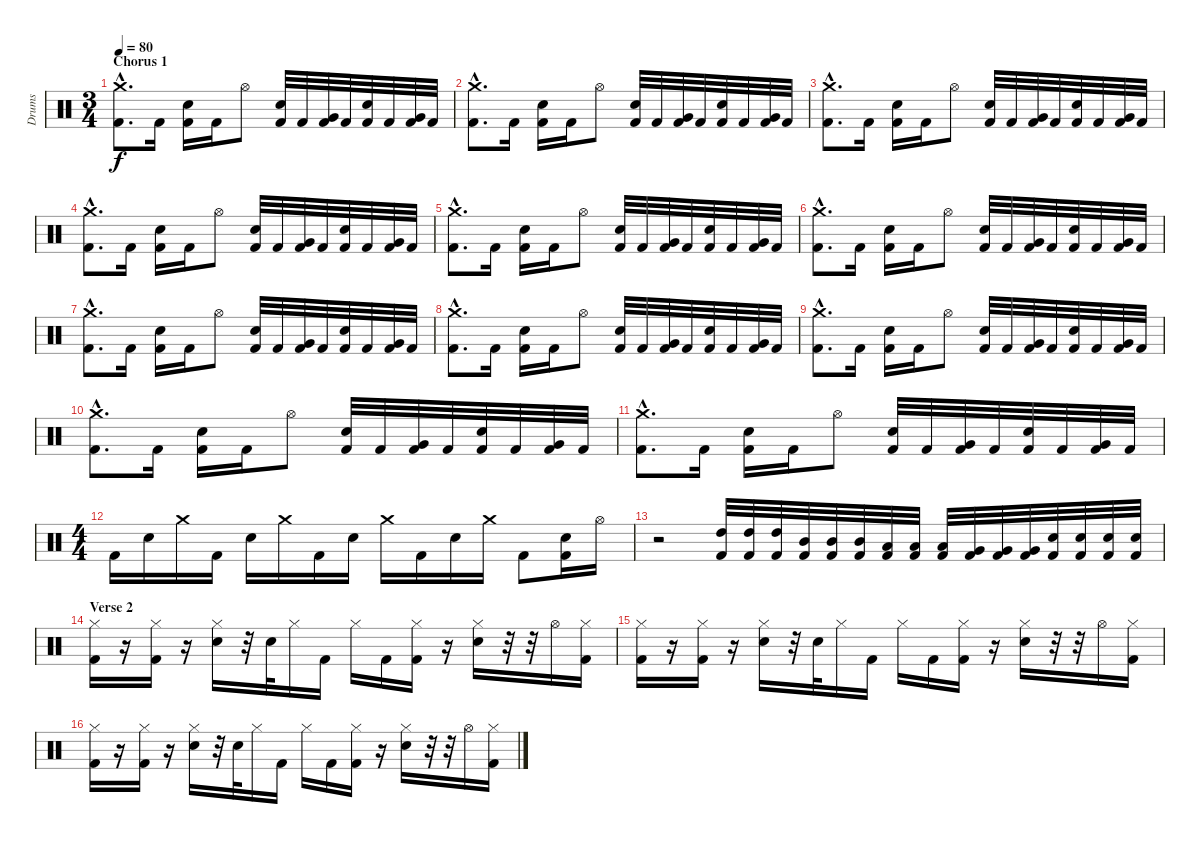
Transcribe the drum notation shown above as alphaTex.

\track ("Drums" "Drums") {instrument percussion}
\staff {score}
\articulation defaults
\ts (3 4)
\section ("" "Chorus 1")
\tempo 80
\clef neutral
\ks c
("Crash medium (hit)"{hac} "Kick (hit) 2"{hac}).8{d dy f} "Kick (hit) 2".16 ("Snare (hit) 2" "Kick (hit) 2").16 "Kick (hit) 2".16 "Hi-Hat (open)".8 ("Snare (hit) 2" "Kick (hit) 2").32 "Kick (hit) 2".32 ("Very Low Tom (hit)" "Kick (hit) 2").32 "Kick (hit) 2".32 ("Snare (hit) 2" "Kick (hit) 2").32 "Kick (hit) 2".32 ("Very Low Tom (hit)" "Kick (hit) 2").32 "Kick (hit) 2".32 |
("Crash medium (hit)"{hac} "Kick (hit) 2"{hac}).8{d} "Kick (hit) 2".16 ("Snare (hit) 2" "Kick (hit) 2").16 "Kick (hit) 2".16 "Hi-Hat (open)".8 ("Snare (hit) 2" "Kick (hit) 2").32 "Kick (hit) 2".32 ("Very Low Tom (hit)" "Kick (hit) 2").32 "Kick (hit) 2".32 ("Snare (hit) 2" "Kick (hit) 2").32 "Kick (hit) 2".32 ("Very Low Tom (hit)" "Kick (hit) 2").32 "Kick (hit) 2".32 |
("Crash medium (hit)"{hac} "Kick (hit) 2"{hac}).8{d} "Kick (hit) 2".16 ("Snare (hit) 2" "Kick (hit) 2").16 "Kick (hit) 2".16 "Hi-Hat (open)".8 ("Snare (hit) 2" "Kick (hit) 2").32 "Kick (hit) 2".32 ("Very Low Tom (hit)" "Kick (hit) 2").32 "Kick (hit) 2".32 ("Snare (hit) 2" "Kick (hit) 2").32 "Kick (hit) 2".32 ("Very Low Tom (hit)" "Kick (hit) 2").32 "Kick (hit) 2".32 |
("Crash medium (hit)"{hac} "Kick (hit) 2"{hac}).8{d} "Kick (hit) 2".16 ("Snare (hit) 2" "Kick (hit) 2").16 "Kick (hit) 2".16 "Hi-Hat (open)".8 ("Snare (hit) 2" "Kick (hit) 2").32 "Kick (hit) 2".32 ("Very Low Tom (hit)" "Kick (hit) 2").32 "Kick (hit) 2".32 ("Snare (hit) 2" "Kick (hit) 2").32 "Kick (hit) 2".32 ("Very Low Tom (hit)" "Kick (hit) 2").32 "Kick (hit) 2".32 |
("Crash medium (hit)"{hac} "Kick (hit) 2"{hac}).8{d} "Kick (hit) 2".16 ("Snare (hit) 2" "Kick (hit) 2").16 "Kick (hit) 2".16 "Hi-Hat (open)".8 ("Snare (hit) 2" "Kick (hit) 2").32 "Kick (hit) 2".32 ("Very Low Tom (hit)" "Kick (hit) 2").32 "Kick (hit) 2".32 ("Snare (hit) 2" "Kick (hit) 2").32 "Kick (hit) 2".32 ("Very Low Tom (hit)" "Kick (hit) 2").32 "Kick (hit) 2".32 |
("Crash medium (hit)"{hac} "Kick (hit) 2"{hac}).8{d} "Kick (hit) 2".16 ("Snare (hit) 2" "Kick (hit) 2").16 "Kick (hit) 2".16 "Hi-Hat (open)".8 ("Snare (hit) 2" "Kick (hit) 2").32 "Kick (hit) 2".32 ("Very Low Tom (hit)" "Kick (hit) 2").32 "Kick (hit) 2".32 ("Snare (hit) 2" "Kick (hit) 2").32 "Kick (hit) 2".32 ("Very Low Tom (hit)" "Kick (hit) 2").32 "Kick (hit) 2".32 |
("Crash medium (hit)"{hac} "Kick (hit) 2"{hac}).8{d} "Kick (hit) 2".16 ("Snare (hit) 2" "Kick (hit) 2").16 "Kick (hit) 2".16 "Hi-Hat (open)".8 ("Snare (hit) 2" "Kick (hit) 2").32 "Kick (hit) 2".32 ("Very Low Tom (hit)" "Kick (hit) 2").32 "Kick (hit) 2".32 ("Snare (hit) 2" "Kick (hit) 2").32 "Kick (hit) 2".32 ("Very Low Tom (hit)" "Kick (hit) 2").32 "Kick (hit) 2".32 |
("Crash medium (hit)"{hac} "Kick (hit) 2"{hac}).8{d} "Kick (hit) 2".16 ("Snare (hit) 2" "Kick (hit) 2").16 "Kick (hit) 2".16 "Hi-Hat (open)".8 ("Snare (hit) 2" "Kick (hit) 2").32 "Kick (hit) 2".32 ("Very Low Tom (hit)" "Kick (hit) 2").32 "Kick (hit) 2".32 ("Snare (hit) 2" "Kick (hit) 2").32 "Kick (hit) 2".32 ("Very Low Tom (hit)" "Kick (hit) 2").32 "Kick (hit) 2".32 |
("Crash medium (hit)"{hac} "Kick (hit) 2"{hac}).8{d} "Kick (hit) 2".16 ("Snare (hit) 2" "Kick (hit) 2").16 "Kick (hit) 2".16 "Hi-Hat (open)".8 ("Snare (hit) 2" "Kick (hit) 2").32 "Kick (hit) 2".32 ("Very Low Tom (hit)" "Kick (hit) 2").32 "Kick (hit) 2".32 ("Snare (hit) 2" "Kick (hit) 2").32 "Kick (hit) 2".32 ("Very Low Tom (hit)" "Kick (hit) 2").32 "Kick (hit) 2".32 |
("Crash medium (hit)"{hac} "Kick (hit) 2"{hac}).8{d} "Kick (hit) 2".16 ("Snare (hit) 2" "Kick (hit) 2").16 "Kick (hit) 2".16 "Hi-Hat (open)".8 ("Snare (hit) 2" "Kick (hit) 2").32 "Kick (hit) 2".32 ("Very Low Tom (hit)" "Kick (hit) 2").32 "Kick (hit) 2".32 ("Snare (hit) 2" "Kick (hit) 2").32 "Kick (hit) 2".32 ("Very Low Tom (hit)" "Kick (hit) 2").32 "Kick (hit) 2".32 |
("Crash medium (hit)"{hac} "Kick (hit) 2"{hac}).8{d} "Kick (hit) 2".16 ("Snare (hit) 2" "Kick (hit) 2").16 "Kick (hit) 2".16 "Hi-Hat (open)".8 ("Snare (hit) 2" "Kick (hit) 2").32 "Kick (hit) 2".32 ("Very Low Tom (hit)" "Kick (hit) 2").32 "Kick (hit) 2".32 ("Snare (hit) 2" "Kick (hit) 2").32 "Kick (hit) 2".32 ("Very Low Tom (hit)" "Kick (hit) 2").32 "Kick (hit) 2".32 |
\ts (4 4)
"Kick (hit) 2".16 "Snare (hit) 2".16 "Crash medium (hit)".16 "Kick (hit) 2".16 "Snare (hit) 2".16 "Crash medium (hit)".16 "Kick (hit) 2".16 "Snare (hit) 2".16 "Crash medium (hit)".16 "Kick (hit) 2".16 "Snare (hit) 2".16 "Crash medium (hit)".16 "Kick (hit) 2".8 ("Snare (hit) 2" "Kick (hit) 2").16 "Hi-Hat (open)".16 |
r.2 ("High Tom (hit)" "Kick (hit) 2").32 ("High Tom (hit)" "Kick (hit) 2").32 ("High Tom (hit)" "Kick (hit) 2").32 ("Mid Tom (hit)" "Kick (hit) 2").32 ("Mid Tom (hit)" "Kick (hit) 2").32 ("Mid Tom (hit)" "Kick (hit) 2").32 ("Low Tom (hit)" "Kick (hit) 2").32 ("Low Tom (hit)" "Kick (hit) 2").32 ("Low Tom (hit)" "Kick (hit) 2").32 ("Very Low Tom (hit)" "Kick (hit) 2").32 ("Very Low Tom (hit)" "Kick (hit) 2").32 ("Very Low Tom (hit)" "Kick (hit) 2").32 ("Snare (hit) 2" "Kick (hit) 2").32 ("Snare (hit) 2" "Kick (hit) 2").32 ("Snare (hit) 2" "Kick (hit) 2").32 ("Snare (hit) 2" "Kick (hit) 2").32 |
\section ("" "Verse 2")
("Hi-Hat (closed)" "Kick (hit) 2").16 r.16 ("Hi-Hat (closed)" "Kick (hit) 2").16 r.16 ("Hi-Hat (closed)" "Snare (hit) 2").16 r.32 "Snare (hit) 2".32 "Hi-Hat (closed)".16 "Kick (hit) 2".16 "Hi-Hat (closed)".16 "Kick (hit) 2".16 ("Hi-Hat (closed)" "Kick (hit) 2").16 r.16 ("Hi-Hat (closed)" "Snare (hit) 2").16 r.32 r.32 "Hi-Hat (open)".16 ("Hi-Hat (closed)" "Kick (hit) 2").16 |
("Hi-Hat (closed)" "Kick (hit) 2").16 r.16 ("Hi-Hat (closed)" "Kick (hit) 2").16 r.16 ("Hi-Hat (closed)" "Snare (hit) 2").16 r.32 "Snare (hit) 2".32 "Hi-Hat (closed)".16 "Kick (hit) 2".16 "Hi-Hat (closed)".16 "Kick (hit) 2".16 ("Hi-Hat (closed)" "Kick (hit) 2").16 r.16 ("Hi-Hat (closed)" "Snare (hit) 2").16 r.32 r.32 "Hi-Hat (open)".16 ("Hi-Hat (closed)" "Kick (hit) 2").16 |
("Hi-Hat (closed)" "Kick (hit) 2").16 r.16 ("Hi-Hat (closed)" "Kick (hit) 2").16 r.16 ("Hi-Hat (closed)" "Snare (hit) 2").16 r.32 "Snare (hit) 2".32 "Hi-Hat (closed)".16 "Kick (hit) 2".16 "Hi-Hat (closed)".16 "Kick (hit) 2".16 ("Hi-Hat (closed)" "Kick (hit) 2").16 r.16 ("Hi-Hat (closed)" "Snare (hit) 2").16 r.32 r.32 "Hi-Hat (open)".16 ("Hi-Hat (closed)" "Kick (hit) 2").16
